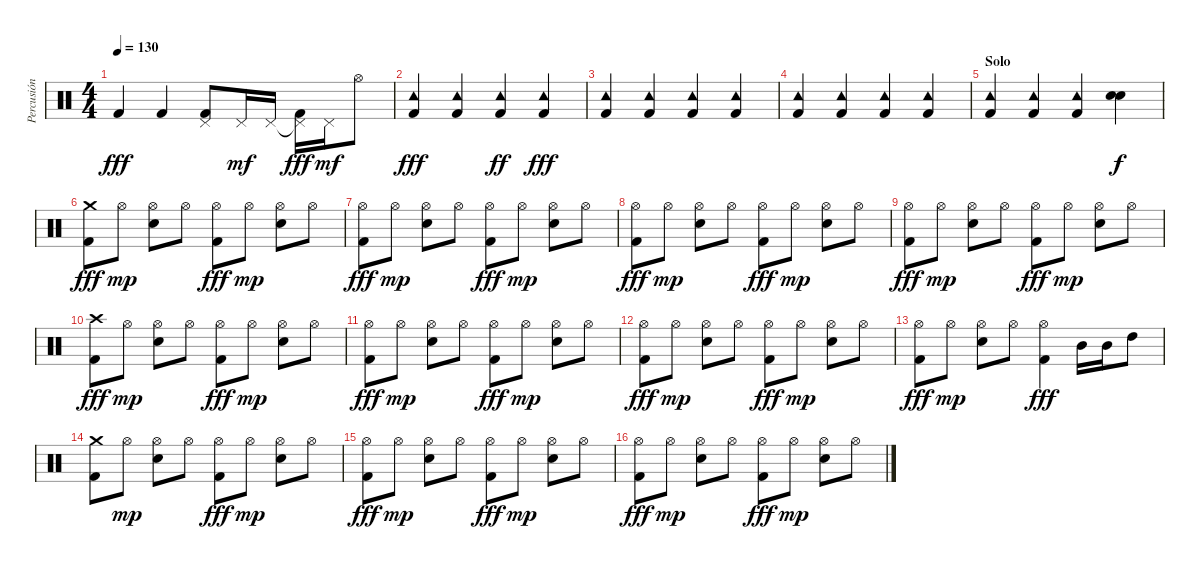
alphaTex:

\track ("Percusión" "Percusión") {instrument percussion}
\staff {score}
\articulation defaults
\ts (4 4)
\tempo 130
\clef neutral
\ks c "Kick (hit) 2".4{dy fff} "Kick (hit) 2".4
("Pedal Hi-Hat (hit)" "Kick (hit) 2").8 "Pedal Hi-Hat (hit)".16{dy mf} "Pedal Hi-Hat (hit)".16 ("Pedal Hi-Hat (hit)"{t} "Kick (hit) 2").16{dy fff} "Pedal Hi-Hat (hit)".16{dy mf} "Hi-Hat (open)".8 |
("Tambourine (hit)" "Kick (hit) 2").4{dy fff} ("Tambourine (hit)" "Kick (hit) 2").4 ("Tambourine (hit)" "Kick (hit) 2").4{dy ff} ("Tambourine (hit)" "Kick (hit) 2").4{dy fff} |
("Tambourine (hit)" "Kick (hit) 2").4 ("Tambourine (hit)" "Kick (hit) 2").4 ("Tambourine (hit)" "Kick (hit) 2").4 ("Tambourine (hit)" "Kick (hit) 2").4 |
("Tambourine (hit)" "Kick (hit) 2").4 ("Tambourine (hit)" "Kick (hit) 2").4 ("Tambourine (hit)" "Kick (hit) 2").4 ("Tambourine (hit)" "Kick (hit) 2").4 |
\section ("" "Solo")
("Tambourine (hit)" "Kick (hit) 2").4 ("Tambourine (hit)" "Kick (hit) 2").4 ("Tambourine (hit)" "Kick (hit) 2").4 ("Snare (hit) 2" "Snare (hit) 2").4{bd 240 dy f} |
("Crash medium (hit)" "Kick (hit) 2").8{dy fff} "Hi-Hat (open)".8{dy mp} ("Hi-Hat (open)" "Snare (hit) 2").8 "Hi-Hat (open)".8 ("Hi-Hat (open)" "Kick (hit) 2").8{dy fff} "Hi-Hat (open)".8{dy mp} ("Hi-Hat (open)" "Snare (hit) 2").8 "Hi-Hat (open)".8 |
("Hi-Hat (open)" "Kick (hit) 2").8{dy fff} "Hi-Hat (open)".8{dy mp} ("Hi-Hat (open)" "Snare (hit) 2").8 "Hi-Hat (open)".8 ("Hi-Hat (open)" "Kick (hit) 2").8{dy fff} "Hi-Hat (open)".8{dy mp} ("Hi-Hat (open)" "Snare (hit) 2").8 "Hi-Hat (open)".8 |
("Hi-Hat (open)" "Kick (hit) 2").8{dy fff} "Hi-Hat (open)".8{dy mp} ("Hi-Hat (open)" "Snare (hit) 2").8 "Hi-Hat (open)".8 ("Hi-Hat (open)" "Kick (hit) 2").8{dy fff} "Hi-Hat (open)".8{dy mp} ("Hi-Hat (open)" "Snare (hit) 2").8 "Hi-Hat (open)".8 |
("Hi-Hat (open)" "Kick (hit) 2").8{dy fff} "Hi-Hat (open)".8{dy mp} ("Hi-Hat (open)" "Snare (hit) 2").8 "Hi-Hat (open)".8 ("Hi-Hat (open)" "Kick (hit) 2").8{dy fff} "Hi-Hat (open)".8{dy mp} ("Hi-Hat (open)" "Snare (hit) 2").8 "Hi-Hat (open)".8 |
("Crash high (hit)" "Kick (hit) 2").8{dy fff} "Hi-Hat (open)".8{dy mp} ("Hi-Hat (open)" "Snare (hit) 2").8 "Hi-Hat (open)".8 ("Hi-Hat (open)" "Kick (hit) 2").8{dy fff} "Hi-Hat (open)".8{dy mp} ("Hi-Hat (open)" "Snare (hit) 2").8 "Hi-Hat (open)".8 |
("Hi-Hat (open)" "Kick (hit) 2").8{dy fff} "Hi-Hat (open)".8{dy mp} ("Hi-Hat (open)" "Snare (hit) 2").8 "Hi-Hat (open)".8 ("Hi-Hat (open)" "Kick (hit) 2").8{dy fff} "Hi-Hat (open)".8{dy mp} ("Hi-Hat (open)" "Snare (hit) 2").8 "Hi-Hat (open)".8 |
("Hi-Hat (open)" "Kick (hit) 2").8{dy fff} "Hi-Hat (open)".8{dy mp} ("Hi-Hat (open)" "Snare (hit) 2").8 "Hi-Hat (open)".8 ("Hi-Hat (open)" "Kick (hit) 2").8{dy fff} "Hi-Hat (open)".8{dy mp} ("Hi-Hat (open)" "Snare (hit) 2").8 "Hi-Hat (open)".8 |
("Hi-Hat (open)" "Kick (hit) 2").8{dy fff} "Hi-Hat (open)".8{dy mp} ("Hi-Hat (open)" "Snare (hit) 2").8 "Hi-Hat (open)".8 ("Hi-Hat (open)" "Kick (hit) 2").4{dy fff} "Mid Tom (hit)".16 "Mid Tom (hit)".16 "High Tom (hit)".8 |
("Crash medium (hit)" "Kick (hit) 2").8 "Hi-Hat (open)".8{dy mp} ("Hi-Hat (open)" "Snare (hit) 2").8 "Hi-Hat (open)".8 ("Hi-Hat (open)" "Kick (hit) 2").8{dy fff} "Hi-Hat (open)".8{dy mp} ("Hi-Hat (open)" "Snare (hit) 2").8 "Hi-Hat (open)".8 |
("Hi-Hat (open)" "Kick (hit) 2").8{dy fff} "Hi-Hat (open)".8{dy mp} ("Hi-Hat (open)" "Snare (hit) 2").8 "Hi-Hat (open)".8 ("Hi-Hat (open)" "Kick (hit) 2").8{dy fff} "Hi-Hat (open)".8{dy mp} ("Hi-Hat (open)" "Snare (hit) 2").8 "Hi-Hat (open)".8 |
("Hi-Hat (open)" "Kick (hit) 2").8{dy fff} "Hi-Hat (open)".8{dy mp} ("Hi-Hat (open)" "Snare (hit) 2").8 "Hi-Hat (open)".8 ("Hi-Hat (open)" "Kick (hit) 2").8{dy fff} "Hi-Hat (open)".8{dy mp} ("Hi-Hat (open)" "Snare (hit) 2").8 "Hi-Hat (open)".8
